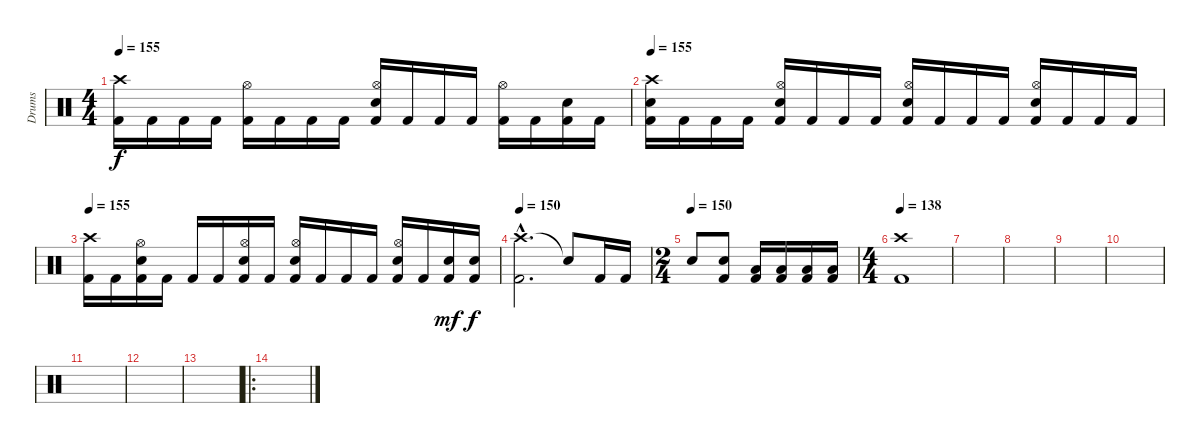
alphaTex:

\track ("Drums" "Drums") {instrument percussion}
\staff {score}
\articulation defaults
\ts (4 4)
\tempo 155
\clef neutral
\ks c
("Crash high (hit)" "Kick (hit) 2").16{dy f} "Kick (hit) 2".16 "Kick (hit) 2".16 "Kick (hit) 2".16 ("Hi-Hat (open)" "Kick (hit) 2").16 "Kick (hit) 2".16 "Kick (hit) 2".16 "Kick (hit) 2".16 ("Hi-Hat (open)" "Electric Snare (hit)" "Kick (hit) 2").16 "Kick (hit) 2".16 "Kick (hit) 2".16 "Kick (hit) 2".16 ("Hi-Hat (open)" "Kick (hit) 2").16 "Kick (hit) 2".16 ("Electric Snare (hit)" "Kick (hit) 2").16 "Kick (hit) 2".16 |
\tempo 155
("Crash high (hit)" "Electric Snare (hit)" "Kick (hit) 2").16 "Kick (hit) 2".16 "Kick (hit) 2".16 "Kick (hit) 2".16 ("Hi-Hat (open)" "Electric Snare (hit)" "Kick (hit) 2").16 "Kick (hit) 2".16 "Kick (hit) 2".16 "Kick (hit) 2".16 ("Hi-Hat (open)" "Electric Snare (hit)" "Kick (hit) 2").16 "Kick (hit) 2".16 "Kick (hit) 2".16 "Kick (hit) 2".16 ("Hi-Hat (open)" "Electric Snare (hit)" "Kick (hit) 2").16 "Kick (hit) 2".16 "Kick (hit) 2".16 "Kick (hit) 2".16 |
\tempo 155
("Crash high (hit)" "Kick (hit) 2").16 "Kick (hit) 2".16 ("Hi-Hat (open)" "Electric Snare (hit)" "Kick (hit) 2").16 "Kick (hit) 2".16 "Kick (hit) 2".16 "Kick (hit) 2".16 ("Hi-Hat (open)" "Electric Snare (hit)" "Kick (hit) 2").16 "Kick (hit) 2".16 ("Hi-Hat (open)" "Electric Snare (hit)" "Kick (hit) 2").16 "Kick (hit) 2".16 "Kick (hit) 2".16 "Kick (hit) 2".16 ("Hi-Hat (open)" "Electric Snare (hit)" "Kick (hit) 2").16 "Kick (hit) 2".16 ("Electric Snare (hit)" "Kick (hit) 2").16{dy mf} ("Electric Snare (hit)" "Kick (hit) 2").16{dy f} |
\tempo 150
("Crash high (hit)"{hac} "Kick (hit) 2"{hac}).2{d} "Snare (hit)"{t}.8 "Kick (hit) 2".16 "Kick (hit) 2".16 |
\ts (2 4)
\tempo (150)
"Electric Snare (hit)".8 ("Electric Snare (hit)" "Kick (hit) 2").8 ("Low Tom (hit)" "Kick (hit) 2").16 ("Low Tom (hit)" "Kick (hit) 2").16 ("Low Tom (hit)" "Kick (hit) 2").16 ("Low Tom (hit)" "Kick (hit) 2").16 |
\ts (4 4)
\tempo 138
("Crash high (hit)" "Kick (hit) 2").1 |
|
|
|
|
|
|
|
\ro
